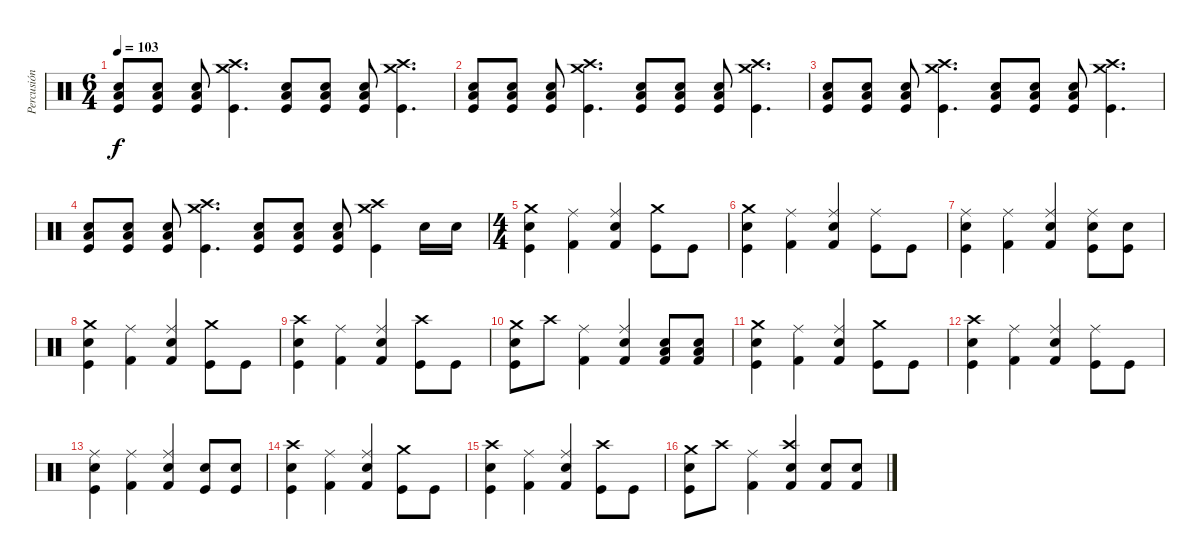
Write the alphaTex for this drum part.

\track ("Percusión" "Percusión") {instrument percussion}
\staff {score}
\articulation defaults
\ts (6 4)
\tempo 103
\clef neutral
\ks c
("Kick (hit)" "Snare (hit) 2" "Low Floor Tom (hit)").8{dy f} ("Kick (hit)" "Snare (hit) 2" "Low Floor Tom (hit)").8 ("Kick (hit)" "Snare (hit) 2" "Low Floor Tom (hit)").8 ("Crash high (hit)" "Crash medium (hit)" "Kick (hit)").4{d} ("Kick (hit)" "Snare (hit) 2" "Low Floor Tom (hit)").8 ("Kick (hit)" "Snare (hit) 2" "Low Floor Tom (hit)").8 ("Kick (hit)" "Snare (hit) 2" "Low Floor Tom (hit)").8 ("Crash high (hit)" "Crash medium (hit)" "Kick (hit)").4{d} |
("Kick (hit)" "Snare (hit) 2" "Low Floor Tom (hit)").8 ("Kick (hit)" "Snare (hit) 2" "Low Floor Tom (hit)").8 ("Kick (hit)" "Snare (hit) 2" "Low Floor Tom (hit)").8 ("Crash high (hit)" "Crash medium (hit)" "Kick (hit)").4{d} ("Kick (hit)" "Snare (hit) 2" "Low Floor Tom (hit)").8 ("Kick (hit)" "Snare (hit) 2" "Low Floor Tom (hit)").8 ("Kick (hit)" "Snare (hit) 2" "Low Floor Tom (hit)").8 ("Crash high (hit)" "Crash medium (hit)" "Kick (hit)").4{d} |
("Kick (hit)" "Snare (hit) 2" "Low Floor Tom (hit)").8 ("Kick (hit)" "Snare (hit) 2" "Low Floor Tom (hit)").8 ("Kick (hit)" "Snare (hit) 2" "Low Floor Tom (hit)").8 ("Crash high (hit)" "Crash medium (hit)" "Kick (hit)").4{d} ("Kick (hit)" "Snare (hit) 2" "Low Floor Tom (hit)").8 ("Kick (hit)" "Snare (hit) 2" "Low Floor Tom (hit)").8 ("Kick (hit)" "Snare (hit) 2" "Low Floor Tom (hit)").8 ("Crash high (hit)" "Crash medium (hit)" "Kick (hit)").4{d} |
("Kick (hit)" "Snare (hit) 2" "Low Floor Tom (hit)").8 ("Kick (hit)" "Snare (hit) 2" "Low Floor Tom (hit)").8 ("Kick (hit)" "Snare (hit) 2" "Low Floor Tom (hit)").8 ("Crash high (hit)" "Crash medium (hit)" "Kick (hit)").4{d} ("Kick (hit)" "Snare (hit) 2" "Low Floor Tom (hit)").8 ("Kick (hit)" "Snare (hit) 2" "Low Floor Tom (hit)").8 ("Kick (hit)" "Snare (hit) 2" "Low Floor Tom (hit)").8 ("Crash high (hit)" "Crash medium (hit)" "Kick (hit)").4 "Snare (hit) 2".16 "Snare (hit) 2".16 |
\ts (4 4)
("Crash medium (hit)" "Kick (hit)" "Snare (hit) 2").4 ("Ride (middle)" "Kick (hit) 2").4 ("Ride (middle)" "Snare (hit) 2" "Kick (hit) 2").4 ("Crash medium (hit)" "Kick (hit)").8 "Kick (hit)".8 |
("Crash medium (hit)" "Kick (hit)" "Snare (hit) 2").4 ("Ride (middle)" "Kick (hit) 2").4 ("Ride (middle)" "Snare (hit) 2" "Kick (hit) 2").4 ("Ride (middle)" "Kick (hit)").8 "Kick (hit)".8 |
("Ride (middle)" "Kick (hit)" "Snare (hit) 2").4 ("Ride (middle)" "Kick (hit) 2").4 ("Ride (middle)" "Snare (hit) 2" "Kick (hit) 2").4 ("Ride (middle)" "Kick (hit)" "Snare (hit) 2").8 ("Snare (hit) 2" "Kick (hit)").8 |
("Crash medium (hit)" "Kick (hit)" "Snare (hit) 2").4 ("Ride (middle)" "Kick (hit) 2").4 ("Ride (middle)" "Snare (hit) 2" "Kick (hit) 2").4 ("Crash medium (hit)" "Kick (hit)").8 "Kick (hit)".8 |
("Crash high (hit)" "Snare (hit) 2" "Kick (hit)").4 ("Ride (middle)" "Kick (hit) 2").4 ("Ride (middle)" "Snare (hit) 2" "Kick (hit) 2").4 ("Crash high (hit)" "Kick (hit)").8 "Kick (hit)".8 |
("Crash medium (hit)" "Kick (hit)" "Snare (hit) 2").8 "Crash high (hit)".8 ("Ride (middle)" "Kick (hit) 2").4 ("Ride (middle)" "Snare (hit) 2" "Kick (hit) 2").4 ("Snare (hit) 2" "Kick (hit) 2" "Low Floor Tom (hit)").8 ("Snare (hit) 2" "Kick (hit) 2" "Low Floor Tom (hit)").8 |
("Crash medium (hit)" "Kick (hit)" "Snare (hit) 2").4 ("Ride (middle)" "Kick (hit) 2").4 ("Ride (middle)" "Snare (hit) 2" "Kick (hit) 2").4 ("Crash medium (hit)" "Kick (hit)").8 "Kick (hit)".8 |
("Crash high (hit)" "Kick (hit)" "Snare (hit) 2").4 ("Ride (middle)" "Kick (hit) 2").4 ("Ride (middle)" "Snare (hit) 2" "Kick (hit) 2").4 ("Ride (middle)" "Kick (hit)").8 "Kick (hit)".8 |
("Ride (middle)" "Kick (hit)" "Snare (hit) 2").4 ("Ride (middle)" "Kick (hit) 2").4 ("Ride (middle)" "Snare (hit) 2" "Kick (hit) 2").4 ("Snare (hit) 2" "Kick (hit)").8 ("Snare (hit) 2" "Kick (hit)").8 |
("Crash high (hit)" "Kick (hit)" "Snare (hit) 2").4 ("Ride (middle)" "Kick (hit) 2").4 ("Ride (middle)" "Snare (hit) 2" "Kick (hit) 2").4 ("Crash medium (hit)" "Kick (hit)").8 "Kick (hit)".8 |
("Crash high (hit)" "Snare (hit) 2" "Kick (hit)").4 ("Ride (middle)" "Kick (hit) 2").4 ("Ride (middle)" "Snare (hit) 2" "Kick (hit) 2").4 ("Crash high (hit)" "Kick (hit)").8 "Kick (hit)".8 |
("Crash medium (hit)" "Kick (hit)" "Snare (hit) 2").8 "Crash high (hit)".8 ("Ride (middle)" "Kick (hit) 2").4 ("Crash high (hit)" "Snare (hit) 2" "Kick (hit) 2").4 ("Kick (hit) 2" "Snare (hit) 2").8 ("Kick (hit) 2" "Snare (hit) 2").8
